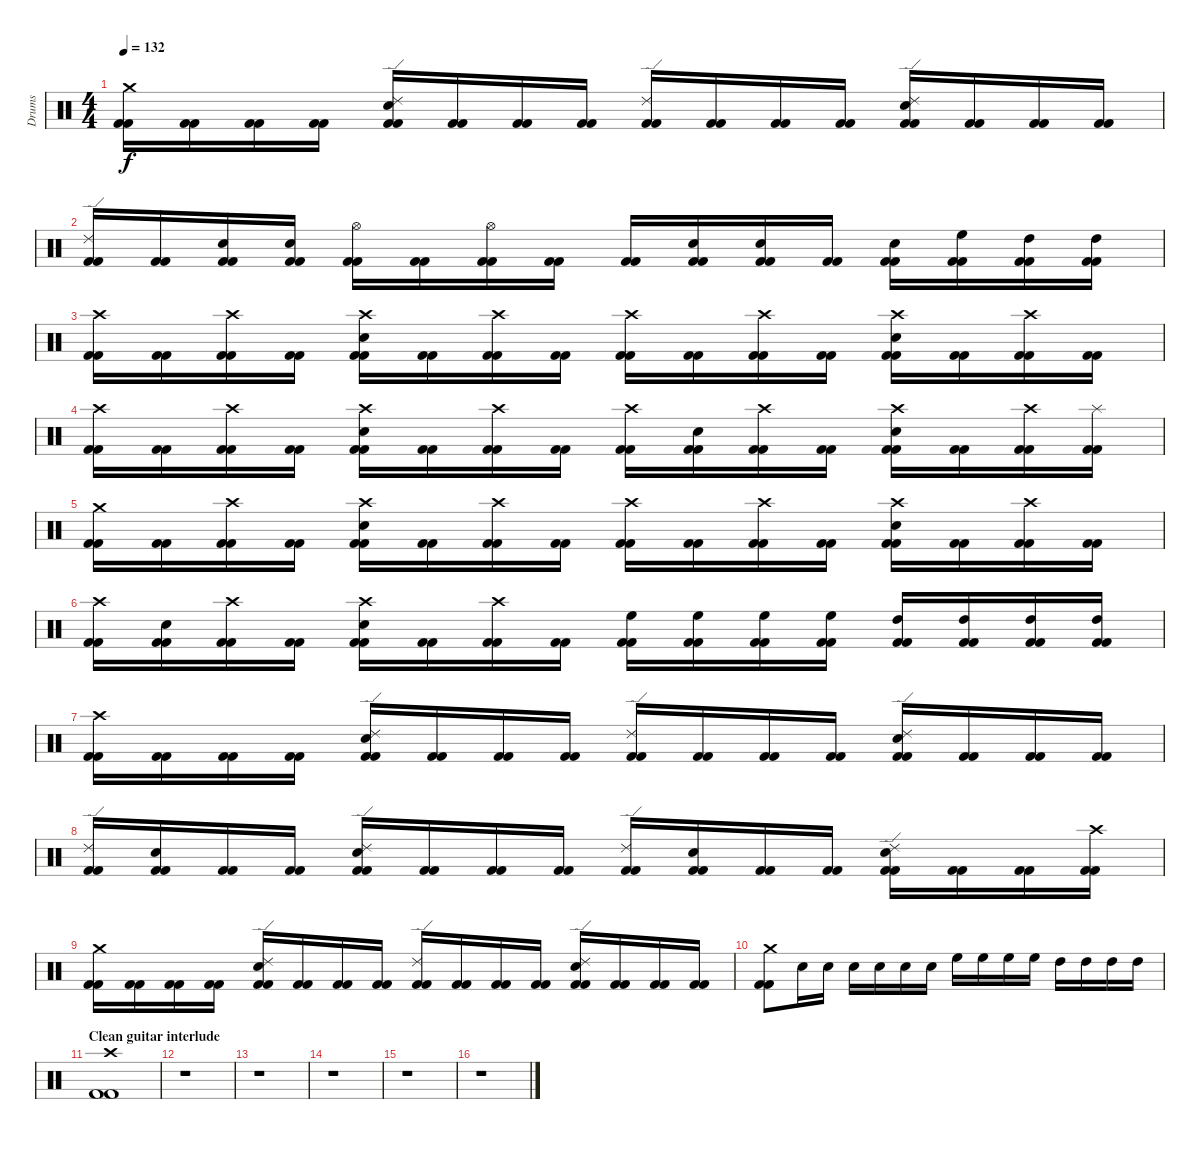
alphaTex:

\track ("Drums" "Drums") {instrument percussion}
\staff {score}
\articulation defaults
\ts (4 4)
\tempo 132
\clef neutral
\ks c
("Crash medium (hit)" "Kick (hit) 2" "Kick (hit) 2").16{dy f} ("Kick (hit) 2" "Kick (hit) 2").16 ("Kick (hit) 2" "Kick (hit) 2").16 ("Kick (hit) 2" "Kick (hit) 2").16 ("Ride (edge) 2" "Electric Snare (hit)" "Kick (hit) 2" "Kick (hit) 2").16 ("Kick (hit) 2" "Kick (hit) 2").16 ("Kick (hit) 2" "Kick (hit) 2").16 ("Kick (hit) 2" "Kick (hit) 2").16 ("Ride (edge) 2" "Kick (hit) 2" "Kick (hit) 2").16 ("Kick (hit) 2" "Kick (hit) 2").16 ("Kick (hit) 2" "Kick (hit) 2").16 ("Kick (hit) 2" "Kick (hit) 2").16 ("Ride (edge) 2" "Electric Snare (hit)" "Kick (hit) 2" "Kick (hit) 2").16 ("Kick (hit) 2" "Kick (hit) 2").16 ("Kick (hit) 2" "Kick (hit) 2").16 ("Kick (hit) 2" "Kick (hit) 2").16 |
("Ride (edge) 2" "Kick (hit) 2" "Kick (hit) 2").16 ("Kick (hit) 2" "Kick (hit) 2").16 ("Electric Snare (hit)" "Kick (hit) 2" "Kick (hit) 2").16 ("Electric Snare (hit)" "Kick (hit) 2" "Kick (hit) 2").16 ("Hi-Hat (open)" "Kick (hit) 2" "Kick (hit) 2").16 ("Kick (hit) 2" "Kick (hit) 2").16 ("Hi-Hat (open)" "Kick (hit) 2" "Kick (hit) 2").16 ("Kick (hit) 2" "Kick (hit) 2").16 ("Kick (hit) 2" "Kick (hit) 2").16 ("Electric Snare (hit)" "Kick (hit) 2" "Kick (hit) 2").16 ("Electric Snare (hit)" "Kick (hit) 2" "Kick (hit) 2").16 ("Kick (hit) 2" "Kick (hit) 2").16 ("Electric Snare (hit)" "Kick (hit) 2" "Kick (hit) 2").16 ("High Floor Tom (hit)" "Kick (hit) 2" "Kick (hit) 2").16 ("High Tom (hit)" "Kick (hit) 2" "Kick (hit) 2").16 ("High Tom (hit)" "Kick (hit) 2" "Kick (hit) 2").16 |
("Crash high (hit)" "Kick (hit) 2" "Kick (hit) 2").16 ("Kick (hit) 2" "Kick (hit) 2").16 ("Crash high (hit)" "Kick (hit) 2" "Kick (hit) 2").16 ("Kick (hit) 2" "Kick (hit) 2").16 ("Crash high (hit)" "Electric Snare (hit)" "Kick (hit) 2" "Kick (hit) 2").16 ("Kick (hit) 2" "Kick (hit) 2").16 ("Crash high (hit)" "Kick (hit) 2" "Kick (hit) 2").16 ("Kick (hit) 2" "Kick (hit) 2").16 ("Crash high (hit)" "Kick (hit) 2" "Kick (hit) 2").16 ("Kick (hit) 2" "Kick (hit) 2").16 ("Crash high (hit)" "Kick (hit) 2" "Kick (hit) 2").16 ("Kick (hit) 2" "Kick (hit) 2").16 ("Crash high (hit)" "Electric Snare (hit)" "Kick (hit) 2" "Kick (hit) 2").16 ("Kick (hit) 2" "Kick (hit) 2").16 ("Crash high (hit)" "Kick (hit) 2" "Kick (hit) 2").16 ("Kick (hit) 2" "Kick (hit) 2").16 |
("Crash high (hit)" "Kick (hit) 2" "Kick (hit) 2").16 ("Kick (hit) 2" "Kick (hit) 2").16 ("Crash high (hit)" "Kick (hit) 2" "Kick (hit) 2").16 ("Kick (hit) 2" "Kick (hit) 2").16 ("Crash high (hit)" "Electric Snare (hit)" "Kick (hit) 2" "Kick (hit) 2").16 ("Kick (hit) 2" "Kick (hit) 2").16 ("Crash high (hit)" "Kick (hit) 2" "Kick (hit) 2").16 ("Kick (hit) 2" "Kick (hit) 2").16 ("Crash high (hit)" "Kick (hit) 2" "Kick (hit) 2").16 ("Electric Snare (hit)" "Kick (hit) 2" "Kick (hit) 2").16 ("Crash high (hit)" "Kick (hit) 2" "Kick (hit) 2").16 ("Kick (hit) 2" "Kick (hit) 2").16 ("Crash high (hit)" "Electric Snare (hit)" "Kick (hit) 2" "Kick (hit) 2").16 ("Kick (hit) 2" "Kick (hit) 2").16 ("Crash high (hit)" "Kick (hit) 2" "Kick (hit) 2").16 ("Splash (hit)" "Kick (hit) 2" "Kick (hit) 2").16 |
("Crash medium (hit)" "Kick (hit) 2" "Kick (hit) 2").16 ("Kick (hit) 2" "Kick (hit) 2").16 ("Crash high (hit)" "Kick (hit) 2" "Kick (hit) 2").16 ("Kick (hit) 2" "Kick (hit) 2").16 ("Crash high (hit)" "Electric Snare (hit)" "Kick (hit) 2" "Kick (hit) 2").16 ("Kick (hit) 2" "Kick (hit) 2").16 ("Crash high (hit)" "Kick (hit) 2" "Kick (hit) 2").16 ("Kick (hit) 2" "Kick (hit) 2").16 ("Crash high (hit)" "Kick (hit) 2" "Kick (hit) 2").16 ("Kick (hit) 2" "Kick (hit) 2").16 ("Crash high (hit)" "Kick (hit) 2" "Kick (hit) 2").16 ("Kick (hit) 2" "Kick (hit) 2").16 ("Crash high (hit)" "Electric Snare (hit)" "Kick (hit) 2" "Kick (hit) 2").16 ("Kick (hit) 2" "Kick (hit) 2").16 ("Crash high (hit)" "Kick (hit) 2" "Kick (hit) 2").16 ("Kick (hit) 2" "Kick (hit) 2").16 |
("Crash high (hit)" "Kick (hit) 2" "Kick (hit) 2").16 ("Electric Snare (hit)" "Kick (hit) 2" "Kick (hit) 2").16 ("Crash high (hit)" "Kick (hit) 2" "Kick (hit) 2").16 ("Kick (hit) 2" "Kick (hit) 2").16 ("Crash high (hit)" "Electric Snare (hit)" "Kick (hit) 2" "Kick (hit) 2").16 ("Kick (hit) 2" "Kick (hit) 2").16 ("Crash high (hit)" "Kick (hit) 2" "Kick (hit) 2").16 ("Kick (hit) 2" "Kick (hit) 2").16 ("High Floor Tom (hit)" "Kick (hit) 2" "Kick (hit) 2").16 ("High Floor Tom (hit)" "Kick (hit) 2" "Kick (hit) 2").16 ("High Floor Tom (hit)" "Kick (hit) 2" "Kick (hit) 2").16 ("High Floor Tom (hit)" "Kick (hit) 2" "Kick (hit) 2").16 ("High Tom (hit)" "Kick (hit) 2" "Kick (hit) 2").16 ("High Tom (hit)" "Kick (hit) 2" "Kick (hit) 2").16 ("High Tom (hit)" "Kick (hit) 2" "Kick (hit) 2").16 ("High Tom (hit)" "Kick (hit) 2" "Kick (hit) 2").16 |
("Crash high (hit)" "Kick (hit) 2" "Kick (hit) 2").16 ("Kick (hit) 2" "Kick (hit) 2").16 ("Kick (hit) 2" "Kick (hit) 2").16 ("Kick (hit) 2" "Kick (hit) 2").16 ("Ride (edge) 2" "Electric Snare (hit)" "Kick (hit) 2" "Kick (hit) 2").16 ("Kick (hit) 2" "Kick (hit) 2").16 ("Kick (hit) 2" "Kick (hit) 2").16 ("Kick (hit) 2" "Kick (hit) 2").16 ("Ride (edge) 2" "Kick (hit) 2" "Kick (hit) 2").16 ("Kick (hit) 2" "Kick (hit) 2").16 ("Kick (hit) 2" "Kick (hit) 2").16 ("Kick (hit) 2" "Kick (hit) 2").16 ("Ride (edge) 2" "Electric Snare (hit)" "Kick (hit) 2" "Kick (hit) 2").16 ("Kick (hit) 2" "Kick (hit) 2").16 ("Kick (hit) 2" "Kick (hit) 2").16 ("Kick (hit) 2" "Kick (hit) 2").16 |
("Ride (edge) 2" "Kick (hit) 2" "Kick (hit) 2").16 ("Electric Snare (hit)" "Kick (hit) 2" "Kick (hit) 2").16 ("Kick (hit) 2" "Kick (hit) 2").16 ("Kick (hit) 2" "Kick (hit) 2").16 ("Ride (edge) 2" "Electric Snare (hit)" "Kick (hit) 2" "Kick (hit) 2").16 ("Kick (hit) 2" "Kick (hit) 2").16 ("Kick (hit) 2" "Kick (hit) 2").16 ("Kick (hit) 2" "Kick (hit) 2").16 ("Ride (edge) 2" "Kick (hit) 2" "Kick (hit) 2").16 ("Electric Snare (hit)" "Kick (hit) 2" "Kick (hit) 2").16 ("Kick (hit) 2" "Kick (hit) 2").16 ("Kick (hit) 2" "Kick (hit) 2").16 ("Ride (edge) 2" "Electric Snare (hit)" "Kick (hit) 2" "Kick (hit) 2").16 ("Kick (hit) 2" "Kick (hit) 2").16 ("Kick (hit) 2" "Kick (hit) 2").16 ("Crash high (hit)" "Kick (hit) 2" "Kick (hit) 2").16 |
("Crash medium (hit)" "Kick (hit) 2" "Kick (hit) 2").16 ("Kick (hit) 2" "Kick (hit) 2").16 ("Kick (hit) 2" "Kick (hit) 2").16 ("Kick (hit) 2" "Kick (hit) 2").16 ("Ride (edge) 2" "Electric Snare (hit)" "Kick (hit) 2" "Kick (hit) 2").16 ("Kick (hit) 2" "Kick (hit) 2").16 ("Kick (hit) 2" "Kick (hit) 2").16 ("Kick (hit) 2" "Kick (hit) 2").16 ("Ride (edge) 2" "Kick (hit) 2" "Kick (hit) 2").16 ("Kick (hit) 2" "Kick (hit) 2").16 ("Kick (hit) 2" "Kick (hit) 2").16 ("Kick (hit) 2" "Kick (hit) 2").16 ("Ride (edge) 2" "Electric Snare (hit)" "Kick (hit) 2" "Kick (hit) 2").16 ("Kick (hit) 2" "Kick (hit) 2").16 ("Kick (hit) 2" "Kick (hit) 2").16 ("Kick (hit) 2" "Kick (hit) 2").16 |
("Crash medium (hit)" "Kick (hit) 2" "Kick (hit) 2").8 "Electric Snare (hit)".16 "Electric Snare (hit)".16 "Electric Snare (hit)".16 "Electric Snare (hit)".16 "Electric Snare (hit)".16 "Electric Snare (hit)".16 "High Floor Tom (hit)".16 "High Floor Tom (hit)".16 "High Floor Tom (hit)".16 "High Floor Tom (hit)".16 "High Tom (hit)".16 "High Tom (hit)".16 "High Tom (hit)".16 "High Tom (hit)".16 |
\section ("" "Clean guitar interlude")
("Crash high (hit)" "Kick (hit) 2" "Kick (hit) 2").1 |
r.1 |
r.1 |
r.1 |
r.1 |
r.1
